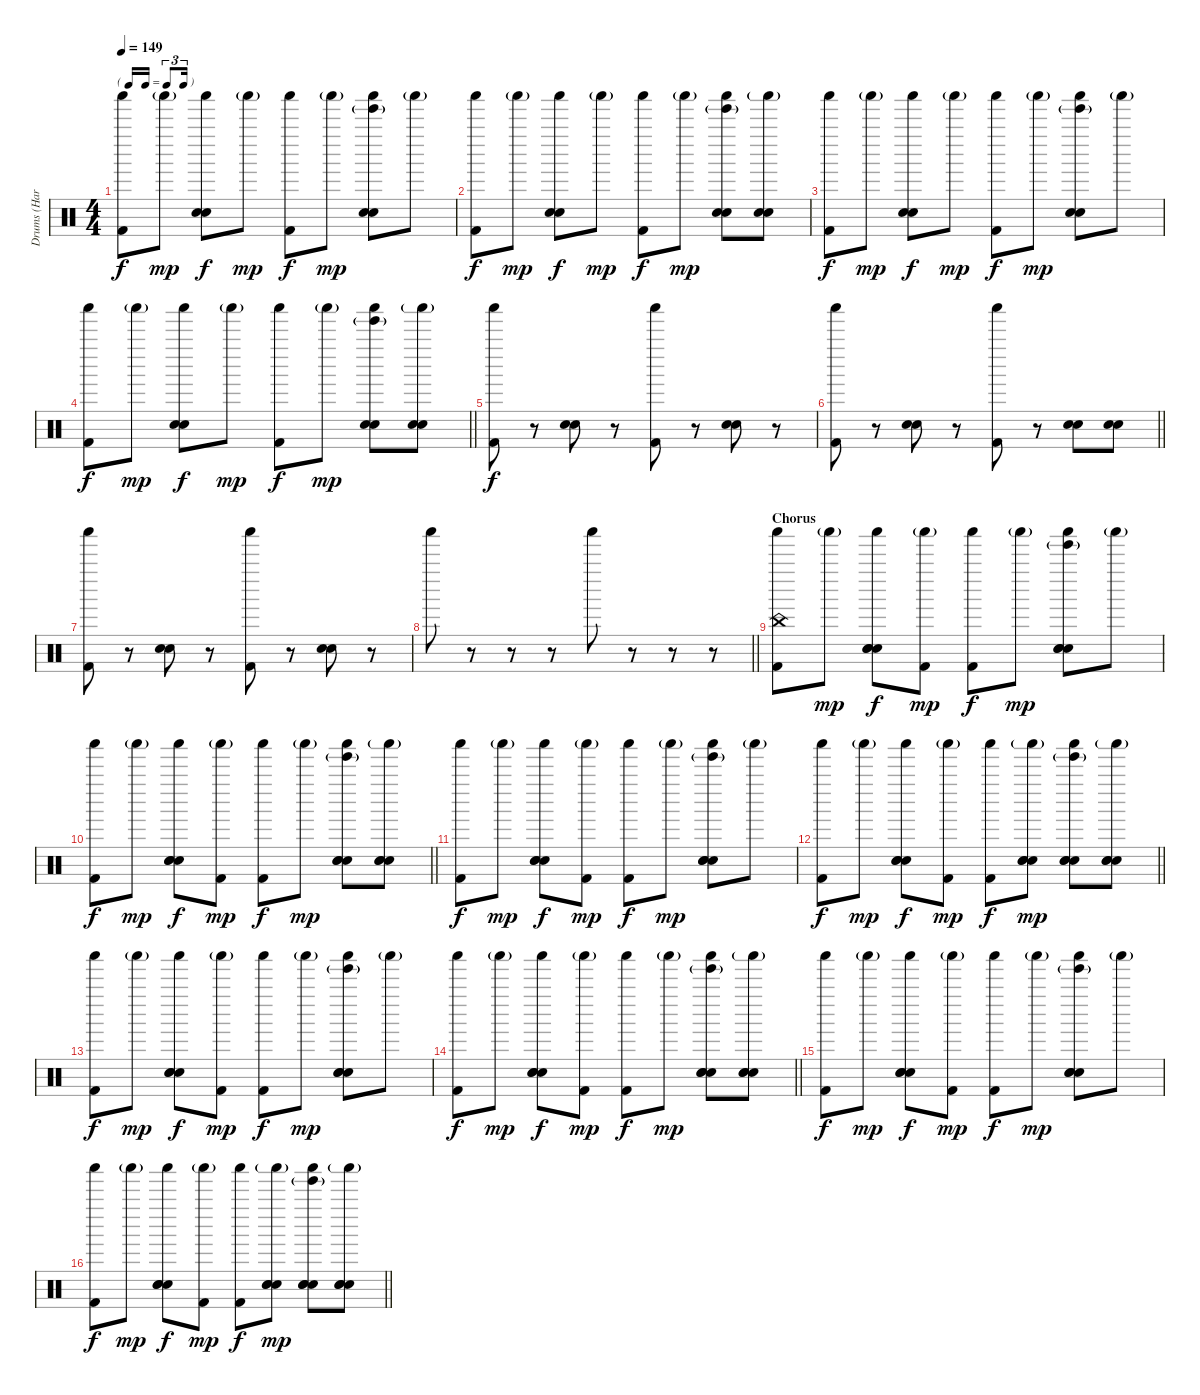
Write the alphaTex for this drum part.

\track ("Drums (Harry)" "Drums (Har") {instrument percussion}
\staff {score}
\articulation defaults
\ts (4 4)
\tf triplet16th
\tempo 149
\clef neutral
\ks c
("Shaker (hit)" "Kick (hit) 2").8{dy f} "Shaker (hit)"{g}.8{dy mp} ("Shaker (hit)" "Hand Clap (hit)" "Hand Clap (hit)").8{dy f} "Shaker (hit)"{g}.8{dy mp} ("Shaker (hit)" "Kick (hit) 2").8{dy f} "Shaker (hit)"{g}.8{dy mp} ("Tinkle Bell (hit)"{g} "Shaker (hit)" "Hand Clap (hit)" "Hand Clap (hit)").8 "Shaker (hit)"{g}.8 |
("Shaker (hit)" "Kick (hit) 2").8{dy f} "Shaker (hit)"{g}.8{dy mp} ("Shaker (hit)" "Hand Clap (hit)" "Hand Clap (hit)").8{dy f} "Shaker (hit)"{g}.8{dy mp} ("Shaker (hit)" "Kick (hit) 2").8{dy f} "Shaker (hit)"{g}.8{dy mp} ("Tinkle Bell (hit)"{g} "Shaker (hit)" "Hand Clap (hit)" "Hand Clap (hit)").8 ("Shaker (hit)"{g} "Hand Clap (hit)" "Hand Clap (hit)").8 |
("Shaker (hit)" "Kick (hit) 2").8{dy f} "Shaker (hit)"{g}.8{dy mp} ("Shaker (hit)" "Hand Clap (hit)" "Hand Clap (hit)").8{dy f} "Shaker (hit)"{g}.8{dy mp} ("Shaker (hit)" "Kick (hit) 2").8{dy f} "Shaker (hit)"{g}.8{dy mp} ("Tinkle Bell (hit)"{g} "Shaker (hit)" "Hand Clap (hit)" "Hand Clap (hit)").8 "Shaker (hit)"{g}.8 |
\barLineRight lightlight
("Shaker (hit)" "Kick (hit) 2").8{dy f} "Shaker (hit)"{g}.8{dy mp} ("Shaker (hit)" "Hand Clap (hit)" "Hand Clap (hit)").8{dy f} "Shaker (hit)"{g}.8{dy mp} ("Shaker (hit)" "Kick (hit) 2").8{dy f} "Shaker (hit)"{g}.8{dy mp} ("Tinkle Bell (hit)"{g} "Shaker (hit)" "Hand Clap (hit)" "Hand Clap (hit)").8 ("Shaker (hit)"{g} "Hand Clap (hit)" "Hand Clap (hit)").8 |
("Shaker (hit)" "Kick (hit) 2").8{dy f} r.8 ("Hand Clap (hit)" "Hand Clap (hit)").8 r.8 ("Shaker (hit)" "Kick (hit) 2").8 r.8 ("Hand Clap (hit)" "Hand Clap (hit)").8 r.8 |
\barLineRight lightlight
("Shaker (hit)" "Kick (hit) 2").8 r.8 ("Hand Clap (hit)" "Hand Clap (hit)").8 r.8 ("Shaker (hit)" "Kick (hit) 2").8 r.8 ("Hand Clap (hit)" "Hand Clap (hit)").8 ("Hand Clap (hit)" "Hand Clap (hit)").8 |
("Shaker (hit)" "Kick (hit) 2").8 r.8 ("Hand Clap (hit)" "Hand Clap (hit)").8 r.8 ("Shaker (hit)" "Kick (hit) 2").8 r.8 ("Hand Clap (hit)" "Hand Clap (hit)").8 r.8 |
\barLineRight lightlight "Shaker (hit)".8
r.8 r.8 r.8 "Shaker (hit)".8 r.8 r.8 r.8 |
\section ("" "Chorus")
("China (hit)" "Shaker (hit)" "Kick (hit) 2").8 "Shaker (hit)"{g}.8{dy mp} ("Shaker (hit)" "Hand Clap (hit)" "Hand Clap (hit)" "Hand Clap (hit)").8{dy f} ("Shaker (hit)"{g} "Kick (hit) 2").8{dy mp} ("Shaker (hit)" "Kick (hit) 2").8{dy f} "Shaker (hit)"{g}.8{dy mp} ("Tinkle Bell (hit)"{g} "Shaker (hit)" "Hand Clap (hit)" "Hand Clap (hit)" "Hand Clap (hit)").8 "Shaker (hit)"{g}.8 |
\barLineRight lightlight
("Shaker (hit)" "Kick (hit) 2").8{dy f} "Shaker (hit)"{g}.8{dy mp} ("Shaker (hit)" "Hand Clap (hit)" "Hand Clap (hit)" "Hand Clap (hit)").8{dy f} ("Shaker (hit)"{g} "Kick (hit) 2").8{dy mp} ("Shaker (hit)" "Kick (hit) 2").8{dy f} "Shaker (hit)"{g}.8{dy mp} ("Tinkle Bell (hit)"{g} "Shaker (hit)" "Hand Clap (hit)" "Hand Clap (hit)" "Hand Clap (hit)").8 ("Shaker (hit)"{g} "Hand Clap (hit)" "Hand Clap (hit)" "Hand Clap (hit)").8 |
("Shaker (hit)" "Kick (hit) 2").8{dy f} "Shaker (hit)"{g}.8{dy mp} ("Shaker (hit)" "Hand Clap (hit)" "Hand Clap (hit)" "Hand Clap (hit)").8{dy f} ("Shaker (hit)"{g} "Kick (hit) 2").8{dy mp} ("Shaker (hit)" "Kick (hit) 2").8{dy f} "Shaker (hit)"{g}.8{dy mp} ("Tinkle Bell (hit)"{g} "Shaker (hit)" "Hand Clap (hit)" "Hand Clap (hit)" "Hand Clap (hit)").8 "Shaker (hit)"{g}.8 |
\barLineRight lightlight
("Shaker (hit)" "Kick (hit) 2").8{dy f} "Shaker (hit)"{g}.8{dy mp} ("Shaker (hit)" "Hand Clap (hit)" "Hand Clap (hit)" "Hand Clap (hit)").8{dy f} ("Shaker (hit)"{g} "Kick (hit) 2").8{dy mp} ("Shaker (hit)" "Kick (hit) 2").8{dy f} ("Shaker (hit)"{g} "Hand Clap (hit)" "Hand Clap (hit)" "Hand Clap (hit)").8{dy mp} ("Tinkle Bell (hit)"{g} "Shaker (hit)" "Hand Clap (hit)" "Hand Clap (hit)" "Hand Clap (hit)").8 ("Shaker (hit)"{g} "Hand Clap (hit)" "Hand Clap (hit)" "Hand Clap (hit)").8 |
("Shaker (hit)" "Kick (hit) 2").8{dy f} "Shaker (hit)"{g}.8{dy mp} ("Shaker (hit)" "Hand Clap (hit)" "Hand Clap (hit)" "Hand Clap (hit)").8{dy f} ("Shaker (hit)"{g} "Kick (hit) 2").8{dy mp} ("Shaker (hit)" "Kick (hit) 2").8{dy f} "Shaker (hit)"{g}.8{dy mp} ("Tinkle Bell (hit)"{g} "Shaker (hit)" "Hand Clap (hit)" "Hand Clap (hit)" "Hand Clap (hit)").8 "Shaker (hit)"{g}.8 |
\barLineRight lightlight
("Shaker (hit)" "Kick (hit) 2").8{dy f} "Shaker (hit)"{g}.8{dy mp} ("Shaker (hit)" "Hand Clap (hit)" "Hand Clap (hit)" "Hand Clap (hit)").8{dy f} ("Shaker (hit)"{g} "Kick (hit) 2").8{dy mp} ("Shaker (hit)" "Kick (hit) 2").8{dy f} "Shaker (hit)"{g}.8{dy mp} ("Tinkle Bell (hit)"{g} "Shaker (hit)" "Hand Clap (hit)" "Hand Clap (hit)" "Hand Clap (hit)").8 ("Shaker (hit)"{g} "Hand Clap (hit)" "Hand Clap (hit)" "Hand Clap (hit)").8 |
("Shaker (hit)" "Kick (hit) 2").8{dy f} "Shaker (hit)"{g}.8{dy mp} ("Shaker (hit)" "Hand Clap (hit)" "Hand Clap (hit)" "Hand Clap (hit)").8{dy f} ("Shaker (hit)"{g} "Kick (hit) 2").8{dy mp} ("Shaker (hit)" "Kick (hit) 2").8{dy f} "Shaker (hit)"{g}.8{dy mp} ("Tinkle Bell (hit)"{g} "Shaker (hit)" "Hand Clap (hit)" "Hand Clap (hit)" "Hand Clap (hit)").8 "Shaker (hit)"{g}.8 |
\barLineRight lightlight
("Shaker (hit)" "Kick (hit) 2").8{dy f} "Shaker (hit)"{g}.8{dy mp} ("Shaker (hit)" "Hand Clap (hit)" "Hand Clap (hit)" "Hand Clap (hit)").8{dy f} ("Shaker (hit)"{g} "Kick (hit) 2").8{dy mp} ("Shaker (hit)" "Kick (hit) 2").8{dy f} ("Shaker (hit)"{g} "Hand Clap (hit)" "Hand Clap (hit)" "Hand Clap (hit)").8{dy mp} ("Tinkle Bell (hit)"{g} "Shaker (hit)" "Hand Clap (hit)" "Hand Clap (hit)" "Hand Clap (hit)").8 ("Shaker (hit)"{g} "Hand Clap (hit)" "Hand Clap (hit)" "Hand Clap (hit)").8
